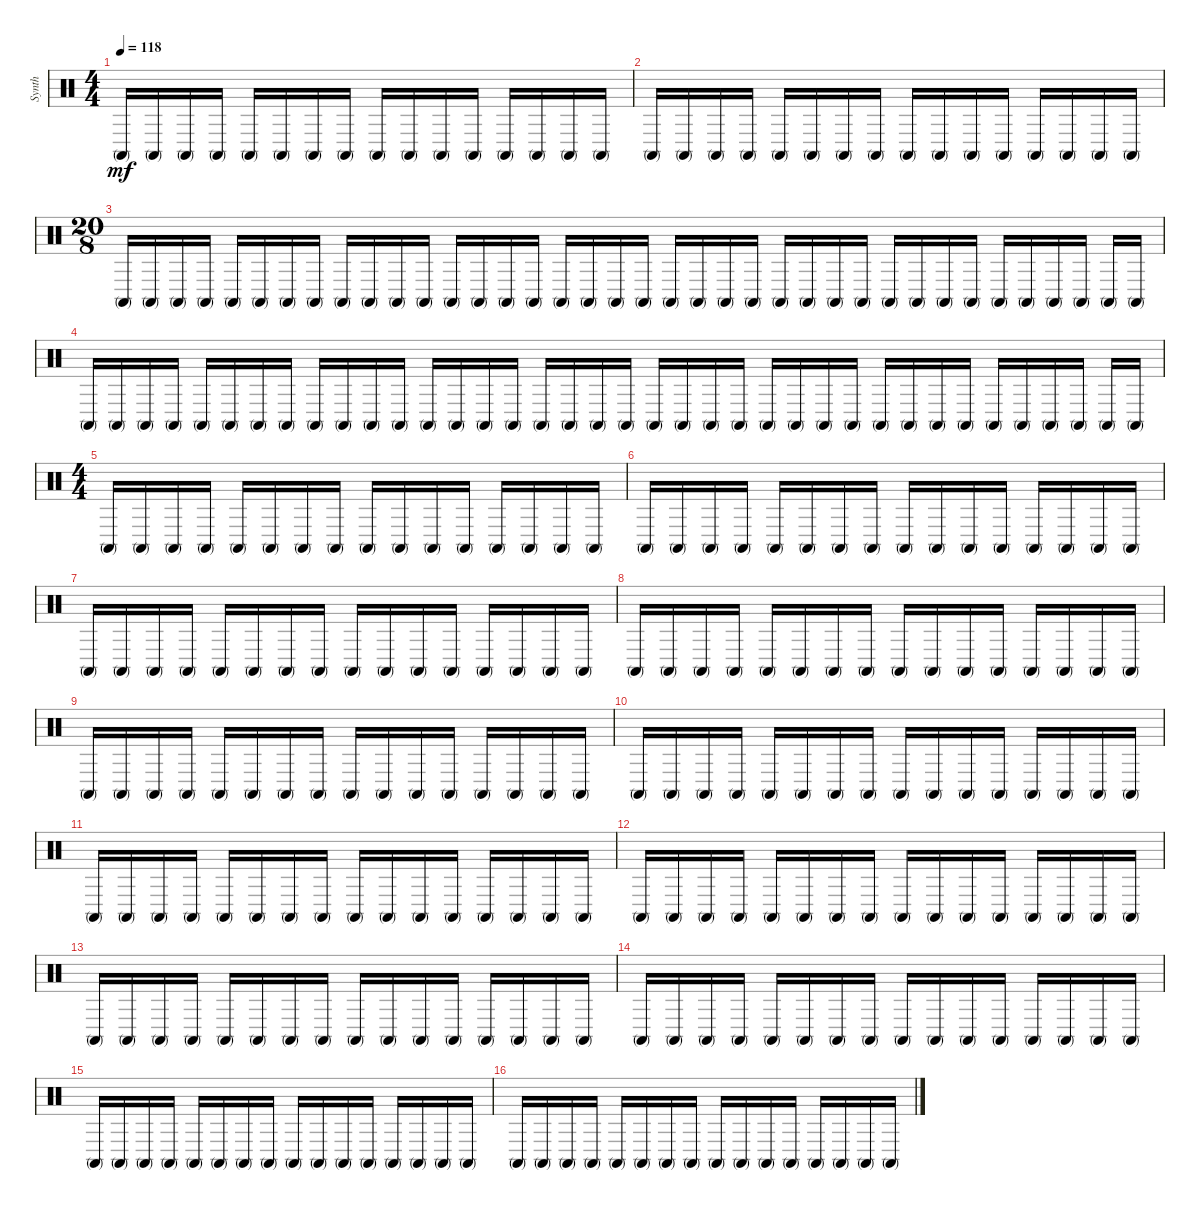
\track ("Synth" "Synth") {instrument percussion}
\staff {score}
\articulation defaults
\ts (4 4)
\tempo 118
\clef neutral
\ks c "Conga high (mute)".16{dy mf} "Conga high (mute)".16 "Conga high (mute)".16 "Conga high (mute)".16 "Conga high (mute)".16 "Conga high (mute)".16 "Conga high (mute)".16 "Conga high (mute)".16 "Conga high (mute)".16 "Conga high (mute)".16 "Conga high (mute)".16 "Conga high (mute)".16 "Conga high (mute)".16 "Conga high (mute)".16 "Conga high (mute)".16 "Conga high (mute)".16
|
"Conga high (mute)".16 "Conga high (mute)".16 "Conga high (mute)".16 "Conga high (mute)".16 "Conga high (mute)".16 "Conga high (mute)".16 "Conga high (mute)".16 "Conga high (mute)".16 "Conga high (mute)".16 "Conga high (mute)".16 "Conga high (mute)".16 "Conga high (mute)".16 "Conga high (mute)".16 "Conga high (mute)".16 "Conga high (mute)".16 "Conga high (mute)".16 |
\ts (20 8)
"Conga high (mute)".16 "Conga high (mute)".16 "Conga high (mute)".16 "Conga high (mute)".16 "Conga high (mute)".16 "Conga high (mute)".16 "Conga high (mute)".16 "Conga high (mute)".16 "Conga high (mute)".16 "Conga high (mute)".16 "Conga high (mute)".16 "Conga high (mute)".16 "Conga high (mute)".16 "Conga high (mute)".16 "Conga high (mute)".16 "Conga high (mute)".16 "Conga high (mute)".16 "Conga high (mute)".16 "Conga high (mute)".16 "Conga high (mute)".16 "Conga high (mute)".16 "Conga high (mute)".16 "Conga high (mute)".16 "Conga high (mute)".16 "Conga high (mute)".16 "Conga high (mute)".16 "Conga high (mute)".16 "Conga high (mute)".16 "Conga high (mute)".16 "Conga high (mute)".16 "Conga high (mute)".16 "Conga high (mute)".16 "Conga high (mute)".16 "Conga high (mute)".16 "Conga high (mute)".16 "Conga high (mute)".16 "Conga high (mute)".16 "Conga high (mute)".16 |
"Conga high (mute)".16 "Conga high (mute)".16 "Conga high (mute)".16 "Conga high (mute)".16 "Conga high (mute)".16 "Conga high (mute)".16 "Conga high (mute)".16 "Conga high (mute)".16 "Conga high (mute)".16 "Conga high (mute)".16 "Conga high (mute)".16 "Conga high (mute)".16 "Conga high (mute)".16 "Conga high (mute)".16 "Conga high (mute)".16 "Conga high (mute)".16 "Conga high (mute)".16 "Conga high (mute)".16 "Conga high (mute)".16 "Conga high (mute)".16 "Conga high (mute)".16 "Conga high (mute)".16 "Conga high (mute)".16 "Conga high (mute)".16 "Conga high (mute)".16 "Conga high (mute)".16 "Conga high (mute)".16 "Conga high (mute)".16 "Conga high (mute)".16 "Conga high (mute)".16 "Conga high (mute)".16 "Conga high (mute)".16 "Conga high (mute)".16 "Conga high (mute)".16 "Conga high (mute)".16 "Conga high (mute)".16 "Conga high (mute)".16 "Conga high (mute)".16 |
\ts (4 4)
"Conga high (mute)".16 "Conga high (mute)".16 "Conga high (mute)".16 "Conga high (mute)".16 "Conga high (mute)".16 "Conga high (mute)".16 "Conga high (mute)".16 "Conga high (mute)".16 "Conga high (mute)".16 "Conga high (mute)".16 "Conga high (mute)".16 "Conga high (mute)".16 "Conga high (mute)".16 "Conga high (mute)".16 "Conga high (mute)".16 "Conga high (mute)".16 |
"Conga high (mute)".16 "Conga high (mute)".16 "Conga high (mute)".16 "Conga high (mute)".16 "Conga high (mute)".16 "Conga high (mute)".16 "Conga high (mute)".16 "Conga high (mute)".16 "Conga high (mute)".16 "Conga high (mute)".16 "Conga high (mute)".16 "Conga high (mute)".16 "Conga high (mute)".16 "Conga high (mute)".16 "Conga high (mute)".16 "Conga high (mute)".16 |
"Conga high (mute)".16 "Conga high (mute)".16 "Conga high (mute)".16 "Conga high (mute)".16 "Conga high (mute)".16 "Conga high (mute)".16 "Conga high (mute)".16 "Conga high (mute)".16 "Conga high (mute)".16 "Conga high (mute)".16 "Conga high (mute)".16 "Conga high (mute)".16 "Conga high (mute)".16 "Conga high (mute)".16 "Conga high (mute)".16 "Conga high (mute)".16 |
"Conga high (mute)".16 "Conga high (mute)".16 "Conga high (mute)".16 "Conga high (mute)".16 "Conga high (mute)".16 "Conga high (mute)".16 "Conga high (mute)".16 "Conga high (mute)".16 "Conga high (mute)".16 "Conga high (mute)".16 "Conga high (mute)".16 "Conga high (mute)".16 "Conga high (mute)".16 "Conga high (mute)".16 "Conga high (mute)".16 "Conga high (mute)".16 |
"Conga high (mute)".16 "Conga high (mute)".16 "Conga high (mute)".16 "Conga high (mute)".16 "Conga high (mute)".16 "Conga high (mute)".16 "Conga high (mute)".16 "Conga high (mute)".16 "Conga high (mute)".16 "Conga high (mute)".16 "Conga high (mute)".16 "Conga high (mute)".16 "Conga high (mute)".16 "Conga high (mute)".16 "Conga high (mute)".16 "Conga high (mute)".16 |
"Conga high (mute)".16 "Conga high (mute)".16 "Conga high (mute)".16 "Conga high (mute)".16 "Conga high (mute)".16 "Conga high (mute)".16 "Conga high (mute)".16 "Conga high (mute)".16 "Conga high (mute)".16 "Conga high (mute)".16 "Conga high (mute)".16 "Conga high (mute)".16 "Conga high (mute)".16 "Conga high (mute)".16 "Conga high (mute)".16 "Conga high (mute)".16 |
"Conga high (mute)".16 "Conga high (mute)".16 "Conga high (mute)".16 "Conga high (mute)".16 "Conga high (mute)".16 "Conga high (mute)".16 "Conga high (mute)".16 "Conga high (mute)".16 "Conga high (mute)".16 "Conga high (mute)".16 "Conga high (mute)".16 "Conga high (mute)".16 "Conga high (mute)".16 "Conga high (mute)".16 "Conga high (mute)".16 "Conga high (mute)".16 |
"Conga high (mute)".16 "Conga high (mute)".16 "Conga high (mute)".16 "Conga high (mute)".16 "Conga high (mute)".16 "Conga high (mute)".16 "Conga high (mute)".16 "Conga high (mute)".16 "Conga high (mute)".16 "Conga high (mute)".16 "Conga high (mute)".16 "Conga high (mute)".16 "Conga high (mute)".16 "Conga high (mute)".16 "Conga high (mute)".16 "Conga high (mute)".16 |
"Conga high (mute)".16 "Conga high (mute)".16 "Conga high (mute)".16 "Conga high (mute)".16 "Conga high (mute)".16 "Conga high (mute)".16 "Conga high (mute)".16 "Conga high (mute)".16 "Conga high (mute)".16 "Conga high (mute)".16 "Conga high (mute)".16 "Conga high (mute)".16 "Conga high (mute)".16 "Conga high (mute)".16 "Conga high (mute)".16 "Conga high (mute)".16 |
"Conga high (mute)".16 "Conga high (mute)".16 "Conga high (mute)".16 "Conga high (mute)".16 "Conga high (mute)".16 "Conga high (mute)".16 "Conga high (mute)".16 "Conga high (mute)".16 "Conga high (mute)".16 "Conga high (mute)".16 "Conga high (mute)".16 "Conga high (mute)".16 "Conga high (mute)".16 "Conga high (mute)".16 "Conga high (mute)".16 "Conga high (mute)".16 |
"Conga high (mute)".16 "Conga high (mute)".16 "Conga high (mute)".16 "Conga high (mute)".16 "Conga high (mute)".16 "Conga high (mute)".16 "Conga high (mute)".16 "Conga high (mute)".16 "Conga high (mute)".16 "Conga high (mute)".16 "Conga high (mute)".16 "Conga high (mute)".16 "Conga high (mute)".16 "Conga high (mute)".16 "Conga high (mute)".16 "Conga high (mute)".16 |
"Conga high (mute)".16 "Conga high (mute)".16 "Conga high (mute)".16 "Conga high (mute)".16 "Conga high (mute)".16 "Conga high (mute)".16 "Conga high (mute)".16 "Conga high (mute)".16 "Conga high (mute)".16 "Conga high (mute)".16 "Conga high (mute)".16 "Conga high (mute)".16 "Conga high (mute)".16 "Conga high (mute)".16 "Conga high (mute)".16 "Conga high (mute)".16
